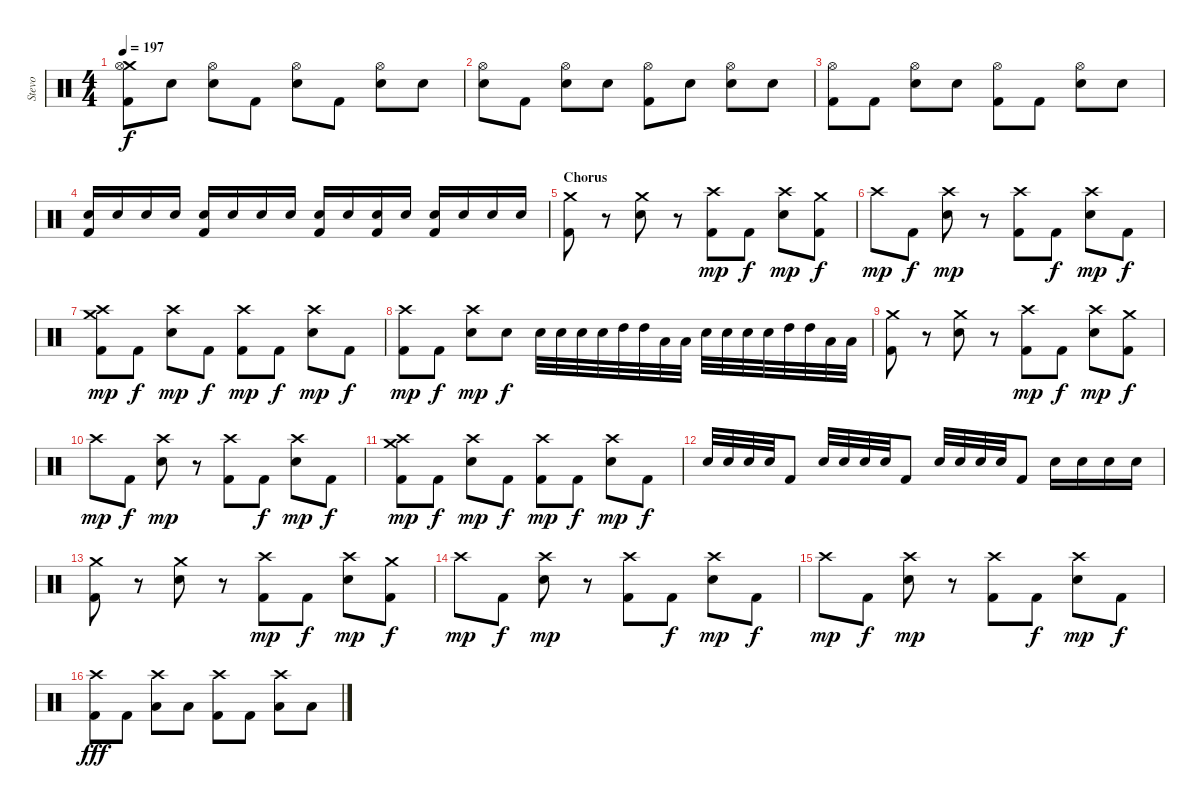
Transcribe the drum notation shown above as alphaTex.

\track ("Stevo" "Stevo") {instrument percussion}
\staff {score}
\articulation defaults
\ts (4 4)
\tempo 197
\clef neutral
\ks c
("Crash medium (hit)" "Hi-Hat (open)" "Kick (hit) 2").8{dy f} "Snare (hit)".8 ("Hi-Hat (open)" "Electric Snare (hit)").8 "Kick (hit) 2".8 ("Hi-Hat (open)" "Snare (hit)").8 "Kick (hit) 2".8 ("Hi-Hat (open)" "Electric Snare (hit)").8 "Snare (hit)".8 |
("Hi-Hat (open)" "Snare (hit)").8 "Kick (hit) 2".8 ("Hi-Hat (open)" "Electric Snare (hit)").8 "Snare (hit)".8 ("Hi-Hat (open)" "Kick (hit) 2").8 "Snare (hit)".8 ("Hi-Hat (open)" "Electric Snare (hit)").8 "Snare (hit)".8 |
("Hi-Hat (open)" "Kick (hit) 2").8 "Kick (hit) 2".8 ("Hi-Hat (open)" "Electric Snare (hit)").8 "Snare (hit)".8 ("Hi-Hat (open)" "Kick (hit) 2").8 "Kick (hit) 2".8 ("Hi-Hat (open)" "Electric Snare (hit)").8 "Snare (hit)".8 |
("Electric Snare (hit)" "Kick (hit) 2").16 "Electric Snare (hit)".16 "Electric Snare (hit)".16 "Electric Snare (hit)".16 ("Electric Snare (hit)" "Kick (hit) 2").16 "Electric Snare (hit)".16 "Electric Snare (hit)".16 "Electric Snare (hit)".16 ("Electric Snare (hit)" "Kick (hit) 2").16 "Electric Snare (hit)".16 ("Electric Snare (hit)" "Kick (hit) 2").16 "Electric Snare (hit)".16 ("Electric Snare (hit)" "Kick (hit) 2").16 "Electric Snare (hit)".16 "Electric Snare (hit)".16 "Electric Snare (hit)".16 |
\section ("" "Chorus")
("Crash medium (hit)" "Kick (hit) 2").8 r.8 ("Crash medium (hit)" "Electric Snare (hit)").8 r.8 ("Crash high (hit)" "Kick (hit) 2").8{dy mp} "Kick (hit) 2".8{dy f} ("Crash high (hit)" "Electric Snare (hit)").8{dy mp} ("Crash medium (hit)" "Kick (hit) 2").8{dy f} |
"Crash high (hit)".8{dy mp} "Kick (hit) 2".8{dy f} ("Crash high (hit)" "Electric Snare (hit)").8{dy mp} r.8 ("Crash high (hit)" "Kick (hit) 2").8 "Kick (hit) 2".8{dy f} ("Crash high (hit)" "Electric Snare (hit)").8{dy mp} "Kick (hit) 2".8{dy f} |
("Crash medium (hit)" "Crash high (hit)" "Kick (hit) 2").8{dy mp} "Kick (hit) 2".8{dy f} ("Crash high (hit)" "Electric Snare (hit)").8{dy mp} "Kick (hit) 2".8{dy f} ("Crash high (hit)" "Kick (hit) 2").8{dy mp} "Kick (hit) 2".8{dy f} ("Crash high (hit)" "Electric Snare (hit)").8{dy mp} "Kick (hit) 2".8{dy f} |
("Crash high (hit)" "Kick (hit) 2").8{dy mp} "Kick (hit) 2".8{dy f} ("Crash high (hit)" "Electric Snare (hit)").8{dy mp} "Electric Snare (hit)".8{dy f} "Electric Snare (hit)".32 "Electric Snare (hit)".32 "Electric Snare (hit)".32 "Electric Snare (hit)".32 "High Tom (hit)".32 "High Tom (hit)".32 "Low Tom (hit)".32 "Low Tom (hit)".32 "Electric Snare (hit)".32 "Electric Snare (hit)".32 "Electric Snare (hit)".32 "Electric Snare (hit)".32 "High Tom (hit)".32 "High Tom (hit)".32 "Low Tom (hit)".32 "Low Tom (hit)".32 |
("Crash medium (hit)" "Kick (hit) 2").8 r.8 ("Crash medium (hit)" "Electric Snare (hit)").8 r.8 ("Crash high (hit)" "Kick (hit) 2").8{dy mp} "Kick (hit) 2".8{dy f} ("Crash high (hit)" "Electric Snare (hit)").8{dy mp} ("Crash medium (hit)" "Kick (hit) 2").8{dy f} |
"Crash high (hit)".8{dy mp} "Kick (hit) 2".8{dy f} ("Crash high (hit)" "Electric Snare (hit)").8{dy mp} r.8 ("Crash high (hit)" "Kick (hit) 2").8 "Kick (hit) 2".8{dy f} ("Crash high (hit)" "Electric Snare (hit)").8{dy mp} "Kick (hit) 2".8{dy f} |
("Crash medium (hit)" "Crash high (hit)" "Kick (hit) 2").8{dy mp} "Kick (hit) 2".8{dy f} ("Crash high (hit)" "Electric Snare (hit)").8{dy mp} "Kick (hit) 2".8{dy f} ("Crash high (hit)" "Kick (hit) 2").8{dy mp} "Kick (hit) 2".8{dy f} ("Crash high (hit)" "Electric Snare (hit)").8{dy mp} "Kick (hit) 2".8{dy f} |
"Electric Snare (hit)".32 "Electric Snare (hit)".32 "Electric Snare (hit)".32 "Electric Snare (hit)".32 "Kick (hit) 2".8 "Electric Snare (hit)".32 "Electric Snare (hit)".32 "Electric Snare (hit)".32 "Electric Snare (hit)".32 "Kick (hit) 2".8 "Electric Snare (hit)".32 "Electric Snare (hit)".32 "Electric Snare (hit)".32 "Electric Snare (hit)".32 "Kick (hit) 2".8 "Electric Snare (hit)".16 "Electric Snare (hit)".16 "Electric Snare (hit)".16 "Electric Snare (hit)".16 |
("Crash medium (hit)" "Kick (hit) 2").8 r.8 ("Crash medium (hit)" "Electric Snare (hit)").8 r.8 ("Crash high (hit)" "Kick (hit) 2").8{dy mp} "Kick (hit) 2".8{dy f} ("Crash high (hit)" "Electric Snare (hit)").8{dy mp} ("Crash medium (hit)" "Kick (hit) 2").8{dy f} |
"Crash high (hit)".8{dy mp} "Kick (hit) 2".8{dy f} ("Crash high (hit)" "Electric Snare (hit)").8{dy mp} r.8 ("Crash high (hit)" "Kick (hit) 2").8 "Kick (hit) 2".8{dy f} ("Crash high (hit)" "Electric Snare (hit)").8{dy mp} "Kick (hit) 2".8{dy f} |
"Crash high (hit)".8{dy mp} "Kick (hit) 2".8{dy f} ("Crash high (hit)" "Electric Snare (hit)").8{dy mp} r.8 ("Crash high (hit)" "Kick (hit) 2").8 "Kick (hit) 2".8{dy f} ("Crash high (hit)" "Electric Snare (hit)").8{dy mp} "Kick (hit) 2".8{dy f} |
("Crash high (hit)" "Kick (hit) 2").8{dy fff} "Kick (hit) 2".8 ("Crash high (hit)" "Low Tom (hit)").8 "Low Floor Tom (hit)".8 ("Crash high (hit)" "Kick (hit) 2").8 "Kick (hit) 2".8 ("Crash high (hit)" "Low Tom (hit)").8 "Low Tom (hit)".8
